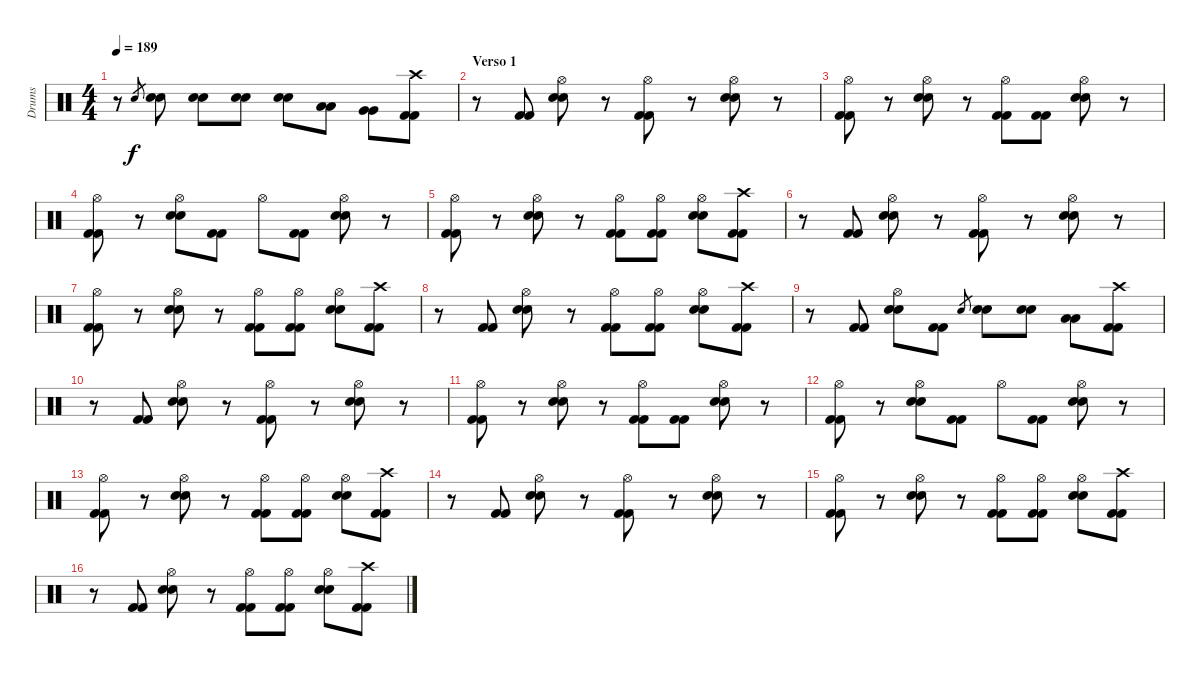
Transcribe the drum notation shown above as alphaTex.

\track ("Drums" "Drums") {instrument percussion}
\staff {score}
\articulation defaults
\ts (4 4)
\tempo 189
\clef neutral
\ks c
r.8{dy f} "Snare (hit) 2".8{gr} ("Snare (hit) 2" "Snare (hit) 2").8 ("Snare (hit) 2" "Snare (hit) 2").8 ("Snare (hit) 2" "Snare (hit) 2").8 ("Snare (hit) 2" "Snare (hit) 2").8 ("Low Tom (hit)" "Low Tom (hit)").8 ("Very Low Tom (hit)" "Very Low Tom (hit)").8 ("Crash high (hit)" "Kick (hit) 2" "Kick (hit) 2").8 |
\section ("" "Verso 1")
r.8 ("Kick (hit) 2" "Kick (hit) 2").8 ("Hi-Hat (open)" "Snare (hit) 2" "Snare (hit) 2").8 r.8 ("Hi-Hat (open)" "Kick (hit) 2" "Kick (hit) 2").8 r.8 ("Hi-Hat (open)" "Snare (hit) 2" "Snare (hit) 2").8 r.8 |
("Hi-Hat (open)" "Kick (hit) 2" "Kick (hit) 2").8 r.8 ("Hi-Hat (open)" "Snare (hit) 2" "Snare (hit) 2").8 r.8 ("Hi-Hat (open)" "Kick (hit) 2" "Kick (hit) 2").8 ("Kick (hit) 2" "Kick (hit) 2").8 ("Hi-Hat (open)" "Snare (hit) 2" "Snare (hit) 2").8 r.8 |
("Hi-Hat (open)" "Kick (hit) 2" "Kick (hit) 2").8 r.8 ("Hi-Hat (open)" "Snare (hit) 2" "Snare (hit) 2").8 ("Kick (hit) 2" "Kick (hit) 2").8 "Hi-Hat (open)".8 ("Kick (hit) 2" "Kick (hit) 2").8 ("Hi-Hat (open)" "Snare (hit) 2" "Snare (hit) 2").8 r.8 |
("Hi-Hat (open)" "Kick (hit) 2" "Kick (hit) 2").8 r.8 ("Hi-Hat (open)" "Snare (hit) 2" "Snare (hit) 2").8 r.8 ("Hi-Hat (open)" "Kick (hit) 2" "Kick (hit) 2").8 ("Hi-Hat (open)" "Kick (hit) 2" "Kick (hit) 2").8 ("Hi-Hat (open)" "Snare (hit) 2" "Snare (hit) 2").8 ("Crash high (hit)" "Kick (hit) 2" "Kick (hit) 2").8 |
r.8 ("Kick (hit) 2" "Kick (hit) 2").8 ("Hi-Hat (open)" "Snare (hit) 2" "Snare (hit) 2").8 r.8 ("Hi-Hat (open)" "Kick (hit) 2" "Kick (hit) 2").8 r.8 ("Hi-Hat (open)" "Snare (hit) 2" "Snare (hit) 2").8 r.8 |
("Hi-Hat (open)" "Kick (hit) 2" "Kick (hit) 2").8 r.8 ("Hi-Hat (open)" "Snare (hit) 2" "Snare (hit) 2").8 r.8 ("Hi-Hat (open)" "Kick (hit) 2" "Kick (hit) 2").8 ("Hi-Hat (open)" "Kick (hit) 2" "Kick (hit) 2").8 ("Hi-Hat (open)" "Snare (hit) 2" "Snare (hit) 2").8 ("Crash high (hit)" "Kick (hit) 2" "Kick (hit) 2").8 |
r.8 ("Kick (hit) 2" "Kick (hit) 2").8 ("Hi-Hat (open)" "Snare (hit) 2" "Snare (hit) 2").8 r.8 ("Hi-Hat (open)" "Kick (hit) 2" "Kick (hit) 2").8 ("Hi-Hat (open)" "Kick (hit) 2" "Kick (hit) 2").8 ("Hi-Hat (open)" "Snare (hit) 2" "Snare (hit) 2").8 ("Crash high (hit)" "Kick (hit) 2" "Kick (hit) 2").8 |
r.8 ("Kick (hit) 2" "Kick (hit) 2").8 ("Hi-Hat (open)" "Snare (hit) 2" "Snare (hit) 2").8 ("Kick (hit) 2" "Kick (hit) 2").8 "Snare (hit) 2".8{gr} ("Snare (hit) 2" "Snare (hit) 2").8 ("Snare (hit) 2" "Snare (hit) 2").8 ("Low Tom (hit)" "Low Tom (hit)").8 ("Crash high (hit)" "Kick (hit) 2" "Kick (hit) 2").8 |
r.8 ("Kick (hit) 2" "Kick (hit) 2").8 ("Hi-Hat (open)" "Snare (hit) 2" "Snare (hit) 2").8 r.8 ("Hi-Hat (open)" "Kick (hit) 2" "Kick (hit) 2").8 r.8 ("Hi-Hat (open)" "Snare (hit) 2" "Snare (hit) 2").8 r.8 |
("Hi-Hat (open)" "Kick (hit) 2" "Kick (hit) 2").8 r.8 ("Hi-Hat (open)" "Snare (hit) 2" "Snare (hit) 2").8 r.8 ("Hi-Hat (open)" "Kick (hit) 2" "Kick (hit) 2").8 ("Kick (hit) 2" "Kick (hit) 2").8 ("Hi-Hat (open)" "Snare (hit) 2" "Snare (hit) 2").8 r.8 |
("Hi-Hat (open)" "Kick (hit) 2" "Kick (hit) 2").8 r.8 ("Hi-Hat (open)" "Snare (hit) 2" "Snare (hit) 2").8 ("Kick (hit) 2" "Kick (hit) 2").8 "Hi-Hat (open)".8 ("Kick (hit) 2" "Kick (hit) 2").8 ("Hi-Hat (open)" "Snare (hit) 2" "Snare (hit) 2").8 r.8 |
("Hi-Hat (open)" "Kick (hit) 2" "Kick (hit) 2").8 r.8 ("Hi-Hat (open)" "Snare (hit) 2" "Snare (hit) 2").8 r.8 ("Hi-Hat (open)" "Kick (hit) 2" "Kick (hit) 2").8 ("Hi-Hat (open)" "Kick (hit) 2" "Kick (hit) 2").8 ("Hi-Hat (open)" "Snare (hit) 2" "Snare (hit) 2").8 ("Crash high (hit)" "Kick (hit) 2" "Kick (hit) 2").8 |
r.8 ("Kick (hit) 2" "Kick (hit) 2").8 ("Hi-Hat (open)" "Snare (hit) 2" "Snare (hit) 2").8 r.8 ("Hi-Hat (open)" "Kick (hit) 2" "Kick (hit) 2").8 r.8 ("Hi-Hat (open)" "Snare (hit) 2" "Snare (hit) 2").8 r.8 |
("Hi-Hat (open)" "Kick (hit) 2" "Kick (hit) 2").8 r.8 ("Hi-Hat (open)" "Snare (hit) 2" "Snare (hit) 2").8 r.8 ("Hi-Hat (open)" "Kick (hit) 2" "Kick (hit) 2").8 ("Hi-Hat (open)" "Kick (hit) 2" "Kick (hit) 2").8 ("Hi-Hat (open)" "Snare (hit) 2" "Snare (hit) 2").8 ("Crash high (hit)" "Kick (hit) 2" "Kick (hit) 2").8 |
r.8 ("Kick (hit) 2" "Kick (hit) 2").8 ("Hi-Hat (open)" "Snare (hit) 2" "Snare (hit) 2").8 r.8 ("Hi-Hat (open)" "Kick (hit) 2" "Kick (hit) 2").8 ("Hi-Hat (open)" "Kick (hit) 2" "Kick (hit) 2").8 ("Hi-Hat (open)" "Snare (hit) 2" "Snare (hit) 2").8 ("Crash high (hit)" "Kick (hit) 2" "Kick (hit) 2").8
